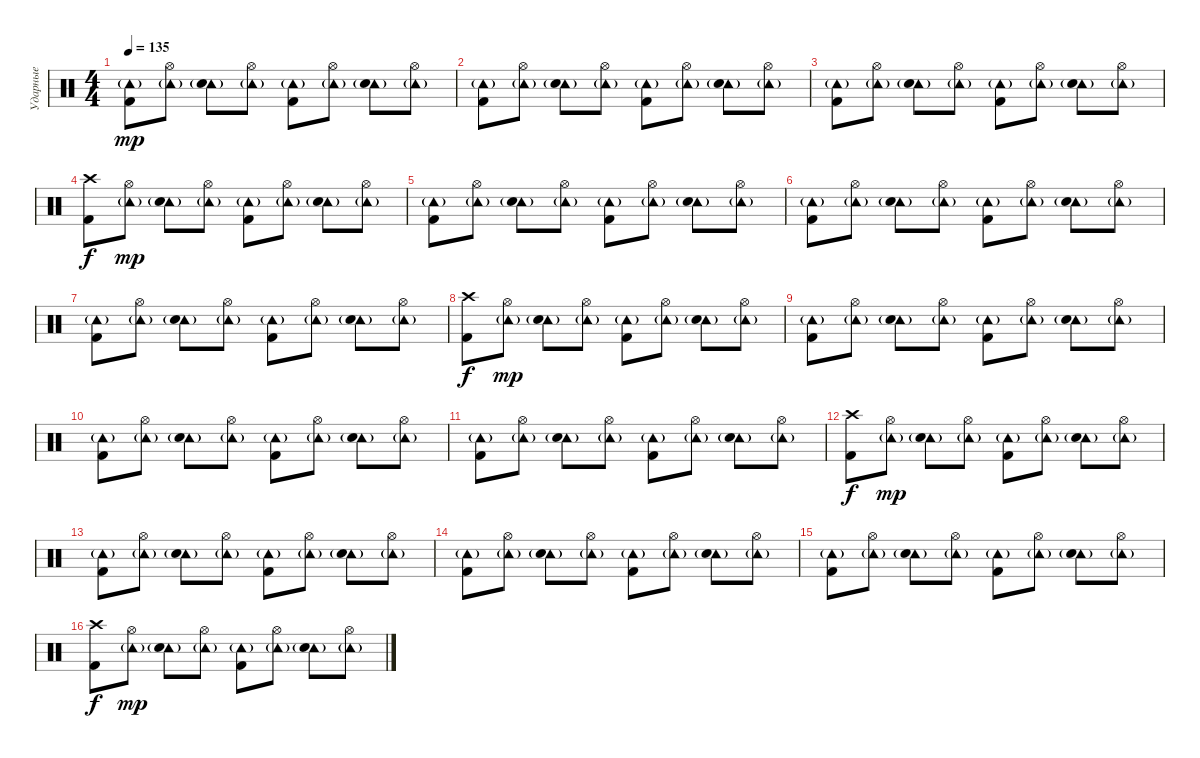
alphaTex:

\track ("Ударные" "Ударные") {instrument percussion}
\staff {score}
\articulation defaults
\ts (4 4)
\tempo 135
\clef neutral
\ks c
("Tambourine (hit)"{g} "Kick (hit) 2").8{dy mp} ("Tambourine (hit)"{g} "Hi-Hat (open)").8 ("Tambourine (hit)"{g} "Electric Snare (hit)").8 ("Tambourine (hit)"{g} "Hi-Hat (open)").8 ("Tambourine (hit)"{g} "Kick (hit) 2").8 ("Tambourine (hit)"{g} "Hi-Hat (open)").8 ("Tambourine (hit)"{g} "Electric Snare (hit)").8 ("Tambourine (hit)"{g} "Hi-Hat (open)").8 |
("Tambourine (hit)"{g} "Kick (hit) 2").8 ("Tambourine (hit)"{g} "Hi-Hat (open)").8 ("Tambourine (hit)"{g} "Electric Snare (hit)").8 ("Tambourine (hit)"{g} "Hi-Hat (open)").8 ("Tambourine (hit)"{g} "Kick (hit) 2").8 ("Tambourine (hit)"{g} "Hi-Hat (open)").8 ("Tambourine (hit)"{g} "Electric Snare (hit)").8 ("Tambourine (hit)"{g} "Hi-Hat (open)").8 |
("Tambourine (hit)"{g} "Kick (hit) 2").8 ("Tambourine (hit)"{g} "Hi-Hat (open)").8 ("Tambourine (hit)"{g} "Electric Snare (hit)").8 ("Tambourine (hit)"{g} "Hi-Hat (open)").8 ("Tambourine (hit)"{g} "Kick (hit) 2").8 ("Tambourine (hit)"{g} "Hi-Hat (open)").8 ("Tambourine (hit)"{g} "Electric Snare (hit)").8 ("Tambourine (hit)"{g} "Hi-Hat (open)").8 |
("Crash high (hit)" "Kick (hit) 2").8{dy f} ("Tambourine (hit)"{g} "Hi-Hat (open)").8{dy mp} ("Tambourine (hit)"{g} "Electric Snare (hit)").8 ("Tambourine (hit)"{g} "Hi-Hat (open)").8 ("Tambourine (hit)"{g} "Kick (hit) 2").8 ("Tambourine (hit)"{g} "Hi-Hat (open)").8 ("Tambourine (hit)"{g} "Electric Snare (hit)").8 ("Tambourine (hit)"{g} "Hi-Hat (open)").8 |
("Tambourine (hit)"{g} "Kick (hit) 2").8 ("Tambourine (hit)"{g} "Hi-Hat (open)").8 ("Tambourine (hit)"{g} "Electric Snare (hit)").8 ("Tambourine (hit)"{g} "Hi-Hat (open)").8 ("Tambourine (hit)"{g} "Kick (hit) 2").8 ("Tambourine (hit)"{g} "Hi-Hat (open)").8 ("Tambourine (hit)"{g} "Electric Snare (hit)").8 ("Tambourine (hit)"{g} "Hi-Hat (open)").8 |
("Tambourine (hit)"{g} "Kick (hit) 2").8 ("Tambourine (hit)"{g} "Hi-Hat (open)").8 ("Tambourine (hit)"{g} "Electric Snare (hit)").8 ("Tambourine (hit)"{g} "Hi-Hat (open)").8 ("Tambourine (hit)"{g} "Kick (hit) 2").8 ("Tambourine (hit)"{g} "Hi-Hat (open)").8 ("Tambourine (hit)"{g} "Electric Snare (hit)").8 ("Tambourine (hit)"{g} "Hi-Hat (open)").8 |
("Tambourine (hit)"{g} "Kick (hit) 2").8 ("Tambourine (hit)"{g} "Hi-Hat (open)").8 ("Tambourine (hit)"{g} "Electric Snare (hit)").8 ("Tambourine (hit)"{g} "Hi-Hat (open)").8 ("Tambourine (hit)"{g} "Kick (hit) 2").8 ("Tambourine (hit)"{g} "Hi-Hat (open)").8 ("Tambourine (hit)"{g} "Electric Snare (hit)").8 ("Tambourine (hit)"{g} "Hi-Hat (open)").8 |
("Crash high (hit)" "Kick (hit) 2").8{dy f} ("Tambourine (hit)"{g} "Hi-Hat (open)").8{dy mp} ("Tambourine (hit)"{g} "Electric Snare (hit)").8 ("Tambourine (hit)"{g} "Hi-Hat (open)").8 ("Tambourine (hit)"{g} "Kick (hit) 2").8 ("Tambourine (hit)"{g} "Hi-Hat (open)").8 ("Tambourine (hit)"{g} "Electric Snare (hit)").8 ("Tambourine (hit)"{g} "Hi-Hat (open)").8 |
("Tambourine (hit)"{g} "Kick (hit) 2").8 ("Tambourine (hit)"{g} "Hi-Hat (open)").8 ("Tambourine (hit)"{g} "Electric Snare (hit)").8 ("Tambourine (hit)"{g} "Hi-Hat (open)").8 ("Tambourine (hit)"{g} "Kick (hit) 2").8 ("Tambourine (hit)"{g} "Hi-Hat (open)").8 ("Tambourine (hit)"{g} "Electric Snare (hit)").8 ("Tambourine (hit)"{g} "Hi-Hat (open)").8 |
("Tambourine (hit)"{g} "Kick (hit) 2").8 ("Tambourine (hit)"{g} "Hi-Hat (open)").8 ("Tambourine (hit)"{g} "Electric Snare (hit)").8 ("Tambourine (hit)"{g} "Hi-Hat (open)").8 ("Tambourine (hit)"{g} "Kick (hit) 2").8 ("Tambourine (hit)"{g} "Hi-Hat (open)").8 ("Tambourine (hit)"{g} "Electric Snare (hit)").8 ("Tambourine (hit)"{g} "Hi-Hat (open)").8 |
("Tambourine (hit)"{g} "Kick (hit) 2").8 ("Tambourine (hit)"{g} "Hi-Hat (open)").8 ("Tambourine (hit)"{g} "Electric Snare (hit)").8 ("Tambourine (hit)"{g} "Hi-Hat (open)").8 ("Tambourine (hit)"{g} "Kick (hit) 2").8 ("Tambourine (hit)"{g} "Hi-Hat (open)").8 ("Tambourine (hit)"{g} "Electric Snare (hit)").8 ("Tambourine (hit)"{g} "Hi-Hat (open)").8 |
("Crash high (hit)" "Kick (hit) 2").8{dy f} ("Tambourine (hit)"{g} "Hi-Hat (open)").8{dy mp} ("Tambourine (hit)"{g} "Electric Snare (hit)").8 ("Tambourine (hit)"{g} "Hi-Hat (open)").8 ("Tambourine (hit)"{g} "Kick (hit) 2").8 ("Tambourine (hit)"{g} "Hi-Hat (open)").8 ("Tambourine (hit)"{g} "Electric Snare (hit)").8 ("Tambourine (hit)"{g} "Hi-Hat (open)").8 |
("Tambourine (hit)"{g} "Kick (hit) 2").8 ("Tambourine (hit)"{g} "Hi-Hat (open)").8 ("Tambourine (hit)"{g} "Electric Snare (hit)").8 ("Tambourine (hit)"{g} "Hi-Hat (open)").8 ("Tambourine (hit)"{g} "Kick (hit) 2").8 ("Tambourine (hit)"{g} "Hi-Hat (open)").8 ("Tambourine (hit)"{g} "Electric Snare (hit)").8 ("Tambourine (hit)"{g} "Hi-Hat (open)").8 |
("Tambourine (hit)"{g} "Kick (hit) 2").8 ("Tambourine (hit)"{g} "Hi-Hat (open)").8 ("Tambourine (hit)"{g} "Electric Snare (hit)").8 ("Tambourine (hit)"{g} "Hi-Hat (open)").8 ("Tambourine (hit)"{g} "Kick (hit) 2").8 ("Tambourine (hit)"{g} "Hi-Hat (open)").8 ("Tambourine (hit)"{g} "Electric Snare (hit)").8 ("Tambourine (hit)"{g} "Hi-Hat (open)").8 |
("Tambourine (hit)"{g} "Kick (hit) 2").8 ("Tambourine (hit)"{g} "Hi-Hat (open)").8 ("Tambourine (hit)"{g} "Electric Snare (hit)").8 ("Tambourine (hit)"{g} "Hi-Hat (open)").8 ("Tambourine (hit)"{g} "Kick (hit) 2").8 ("Tambourine (hit)"{g} "Hi-Hat (open)").8 ("Tambourine (hit)"{g} "Electric Snare (hit)").8 ("Tambourine (hit)"{g} "Hi-Hat (open)").8 |
("Crash high (hit)" "Kick (hit) 2").8{dy f} ("Tambourine (hit)"{g} "Hi-Hat (open)").8{dy mp} ("Tambourine (hit)"{g} "Electric Snare (hit)").8 ("Tambourine (hit)"{g} "Hi-Hat (open)").8 ("Tambourine (hit)"{g} "Kick (hit) 2").8 ("Tambourine (hit)"{g} "Hi-Hat (open)").8 ("Tambourine (hit)"{g} "Electric Snare (hit)").8 ("Tambourine (hit)"{g} "Hi-Hat (open)").8
